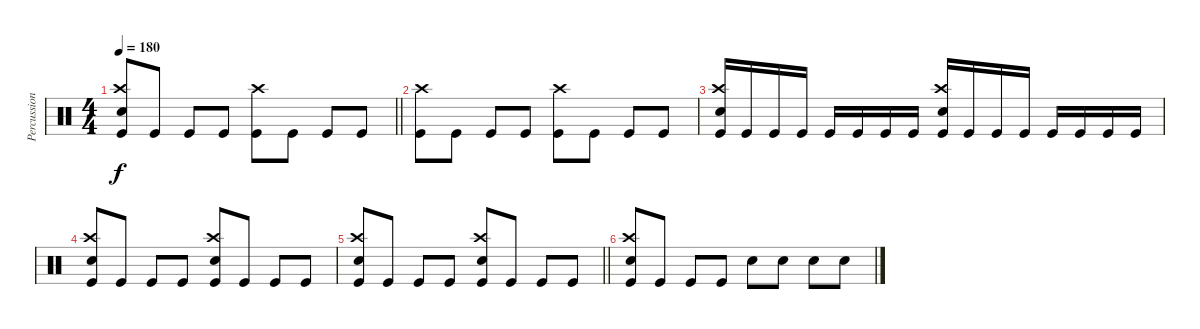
\track ("Percussion" "Percussion") {instrument percussion}
\staff {score}
\articulation defaults
\ts (4 4)
\tempo 180
\clef neutral
\barLineRight lightlight
\ks c
("Snare (hit) 2" "Crash high (hit)" "Kick (hit)").8{dy f} "Kick (hit)".8 "Kick (hit)".8 "Kick (hit)".8 ("Crash high (hit)" "Kick (hit)").8 "Kick (hit)".8 "Kick (hit)".8 "Kick (hit)".8 |
("Crash high (hit)" "Kick (hit)").8 "Kick (hit)".8 "Kick (hit)".8 "Kick (hit)".8 ("Crash high (hit)" "Kick (hit)").8 "Kick (hit)".8 "Kick (hit)".8 "Kick (hit)".8 |
("Crash high (hit)" "Snare (hit) 2" "Kick (hit)").16 "Kick (hit)".16 "Kick (hit)".16 "Kick (hit)".16 "Kick (hit)".16 "Kick (hit)".16 "Kick (hit)".16 "Kick (hit)".16 ("Snare (hit) 2" "Crash high (hit)" "Kick (hit)").16 "Kick (hit)".16 "Kick (hit)".16 "Kick (hit)".16 "Kick (hit)".16 "Kick (hit)".16 "Kick (hit)".16 "Kick (hit)".16 |
("Snare (hit) 2" "Crash high (hit)" "Kick (hit)").8 "Kick (hit)".8 "Kick (hit)".8 "Kick (hit)".8 ("Snare (hit) 2" "Crash high (hit)" "Kick (hit)").8 "Kick (hit)".8 "Kick (hit)".8 "Kick (hit)".8 |
\barLineRight lightlight
("Snare (hit) 2" "Crash high (hit)" "Kick (hit)").8 "Kick (hit)".8 "Kick (hit)".8 "Kick (hit)".8 ("Snare (hit) 2" "Crash high (hit)" "Kick (hit)").8 "Kick (hit)".8 "Kick (hit)".8 "Kick (hit)".8 |
("Snare (hit) 2" "Crash high (hit)" "Kick (hit)").8 "Kick (hit)".8 "Kick (hit)".8 "Kick (hit)".8 "Snare (hit) 2".8 "Snare (hit) 2".8 "Snare (hit) 2".8 "Snare (hit) 2".8
